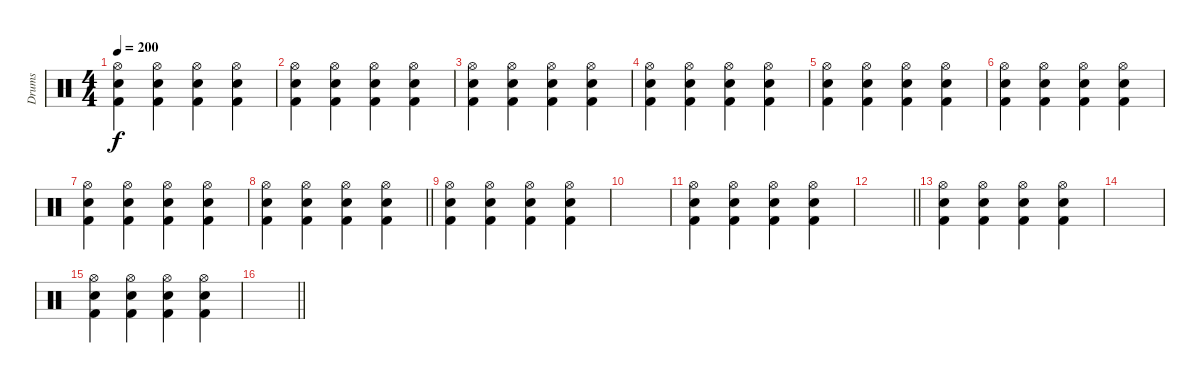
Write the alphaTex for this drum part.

\track ("Drums" "Drums") {instrument percussion}
\staff {score}
\articulation defaults
\ts (4 4)
\tempo 200
\clef neutral
\ks c
("Hi-Hat (open)" "Electric Snare (hit)" "Kick (hit) 2").4{dy f} ("Hi-Hat (open)" "Electric Snare (hit)" "Kick (hit) 2").4 ("Hi-Hat (open)" "Electric Snare (hit)" "Kick (hit) 2").4 ("Hi-Hat (open)" "Electric Snare (hit)" "Kick (hit) 2").4 |
("Hi-Hat (open)" "Electric Snare (hit)" "Kick (hit) 2").4 ("Hi-Hat (open)" "Electric Snare (hit)" "Kick (hit) 2").4 ("Hi-Hat (open)" "Electric Snare (hit)" "Kick (hit) 2").4 ("Hi-Hat (open)" "Electric Snare (hit)" "Kick (hit) 2").4 |
("Hi-Hat (open)" "Electric Snare (hit)" "Kick (hit) 2").4 ("Hi-Hat (open)" "Electric Snare (hit)" "Kick (hit) 2").4 ("Hi-Hat (open)" "Electric Snare (hit)" "Kick (hit) 2").4 ("Hi-Hat (open)" "Electric Snare (hit)" "Kick (hit) 2").4 |
("Hi-Hat (open)" "Electric Snare (hit)" "Kick (hit) 2").4 ("Hi-Hat (open)" "Electric Snare (hit)" "Kick (hit) 2").4 ("Hi-Hat (open)" "Electric Snare (hit)" "Kick (hit) 2").4 ("Hi-Hat (open)" "Electric Snare (hit)" "Kick (hit) 2").4 |
("Hi-Hat (open)" "Electric Snare (hit)" "Kick (hit) 2").4 ("Hi-Hat (open)" "Electric Snare (hit)" "Kick (hit) 2").4 ("Hi-Hat (open)" "Electric Snare (hit)" "Kick (hit) 2").4 ("Hi-Hat (open)" "Electric Snare (hit)" "Kick (hit) 2").4 |
("Hi-Hat (open)" "Electric Snare (hit)" "Kick (hit) 2").4 ("Hi-Hat (open)" "Electric Snare (hit)" "Kick (hit) 2").4 ("Hi-Hat (open)" "Electric Snare (hit)" "Kick (hit) 2").4 ("Hi-Hat (open)" "Electric Snare (hit)" "Kick (hit) 2").4 |
("Hi-Hat (open)" "Electric Snare (hit)" "Kick (hit) 2").4 ("Hi-Hat (open)" "Electric Snare (hit)" "Kick (hit) 2").4 ("Hi-Hat (open)" "Electric Snare (hit)" "Kick (hit) 2").4 ("Hi-Hat (open)" "Electric Snare (hit)" "Kick (hit) 2").4 |
\barLineRight lightlight
("Hi-Hat (open)" "Electric Snare (hit)" "Kick (hit) 2").4 ("Hi-Hat (open)" "Electric Snare (hit)" "Kick (hit) 2").4 ("Hi-Hat (open)" "Electric Snare (hit)" "Kick (hit) 2").4 ("Hi-Hat (open)" "Electric Snare (hit)" "Kick (hit) 2").4 |
\section ("" "")
("Hi-Hat (open)" "Electric Snare (hit)" "Kick (hit) 2").4 ("Hi-Hat (open)" "Electric Snare (hit)" "Kick (hit) 2").4 ("Hi-Hat (open)" "Electric Snare (hit)" "Kick (hit) 2").4 ("Hi-Hat (open)" "Electric Snare (hit)" "Kick (hit) 2").4 |
|
("Hi-Hat (open)" "Electric Snare (hit)" "Kick (hit) 2").4 ("Hi-Hat (open)" "Electric Snare (hit)" "Kick (hit) 2").4 ("Hi-Hat (open)" "Electric Snare (hit)" "Kick (hit) 2").4 ("Hi-Hat (open)" "Electric Snare (hit)" "Kick (hit) 2").4 |
\barLineRight lightlight
|
("Hi-Hat (open)" "Electric Snare (hit)" "Kick (hit) 2").4 ("Hi-Hat (open)" "Electric Snare (hit)" "Kick (hit) 2").4 ("Hi-Hat (open)" "Electric Snare (hit)" "Kick (hit) 2").4 ("Hi-Hat (open)" "Electric Snare (hit)" "Kick (hit) 2").4 |
|
("Hi-Hat (open)" "Electric Snare (hit)" "Kick (hit) 2").4 ("Hi-Hat (open)" "Electric Snare (hit)" "Kick (hit) 2").4 ("Hi-Hat (open)" "Electric Snare (hit)" "Kick (hit) 2").4 ("Hi-Hat (open)" "Electric Snare (hit)" "Kick (hit) 2").4 |
\barLineRight lightlight
